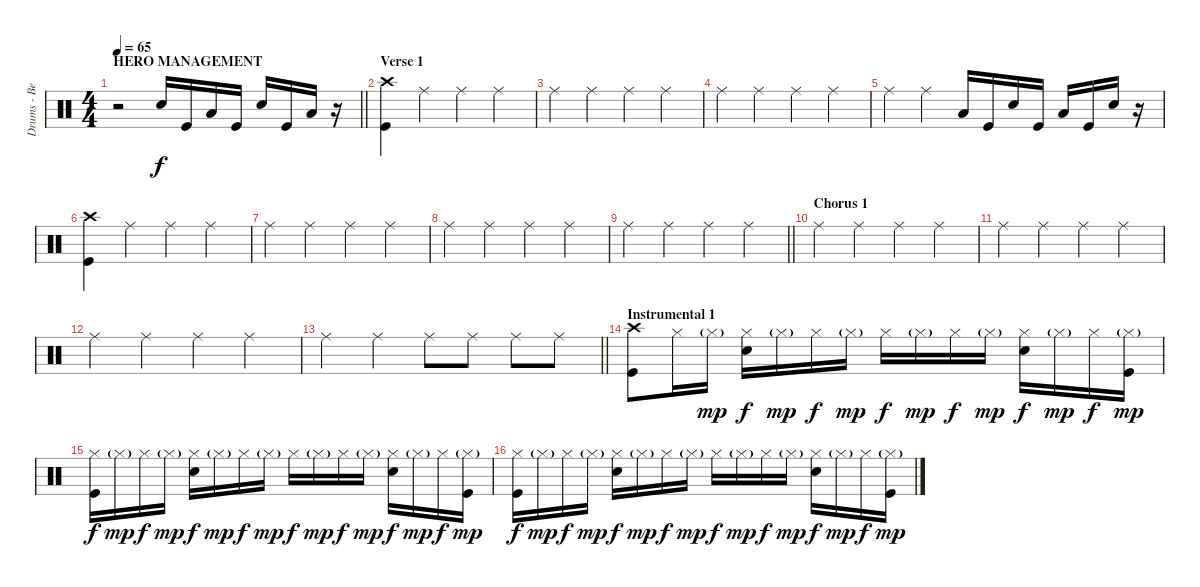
\track ("Drums - Ben Johnston" "Drums - Be") {instrument percussion}
\staff {score}
\articulation defaults
\ts (4 4)
\section ("" "HERO MANAGEMENT")
\tempo 65
\clef neutral
\barLineRight lightlight
\ks c
r.2{dy f volume 13} "Snare (hit) 2".16 "Kick (hit)".16 "Low Tom (hit)".16 "Kick (hit)".16 "Snare (hit) 2".16 "Kick (hit)".16 "Low Tom (hit)".16 r.16 |
\section ("" "Verse 1")
("Crash high (hit)" "Kick (hit)").4 "Ride (middle)".4 "Ride (middle)".4 "Ride (middle)".4 |
"Ride (middle)".4 "Ride (middle)".4 "Ride (middle)".4 "Ride (middle)".4 |
"Ride (middle)".4 "Ride (middle)".4 "Ride (middle)".4 "Ride (middle)".4 |
"Ride (middle)".4 "Ride (middle)".4 "Low Tom (hit)".16 "Kick (hit)".16 "Snare (hit) 2".16 "Kick (hit)".16 "Low Tom (hit)".16 "Kick (hit)".16 "Snare (hit) 2".16 r.16 |
("Crash high (hit)" "Kick (hit)").4 "Ride (middle)".4 "Ride (middle)".4 "Ride (middle)".4 |
"Ride (middle)".4 "Ride (middle)".4 "Ride (middle)".4 "Ride (middle)".4 |
"Ride (middle)".4 "Ride (middle)".4 "Ride (middle)".4 "Ride (middle)".4 |
\barLineRight lightlight "Ride (middle)".4 "Ride (middle)".4 "Ride (middle)".4 "Ride (middle)".4
|
\section ("" "Chorus 1")
"Ride (middle)".4 "Ride (middle)".4 "Ride (middle)".4 "Ride (middle)".4 |
"Ride (middle)".4 "Ride (middle)".4 "Ride (middle)".4 "Ride (middle)".4 |
"Ride (middle)".4 "Ride (middle)".4 "Ride (middle)".4 "Ride (middle)".4 |
\barLineRight lightlight "Ride (middle)".4 "Ride (middle)".4 "Ride (middle)".8 "Ride (middle)".8 "Ride (middle)".8 "Ride (middle)".8
|
\section ("" "Instrumental 1")
("Crash high (hit)" "Kick (hit)").8 "Hi-Hat (closed)".16 "Hi-Hat (closed)"{g}.16{dy mp} ("Hi-Hat (closed)" "Snare (hit) 2").16{dy f} "Hi-Hat (closed)"{g}.16{dy mp} "Hi-Hat (closed)".16{dy f} "Hi-Hat (closed)"{g}.16{dy mp} "Hi-Hat (closed)".16{dy f} "Hi-Hat (closed)"{g}.16{dy mp} "Hi-Hat (closed)".16{dy f} "Hi-Hat (closed)"{g}.16{dy mp} ("Hi-Hat (closed)" "Snare (hit) 2").16{dy f} "Hi-Hat (closed)"{g}.16{dy mp} "Hi-Hat (closed)".16{dy f} ("Hi-Hat (closed)"{g} "Kick (hit)").16{dy mp} |
("Hi-Hat (closed)" "Kick (hit)").16{dy f} "Hi-Hat (closed)"{g}.16{dy mp} "Hi-Hat (closed)".16{dy f} "Hi-Hat (closed)"{g}.16{dy mp} ("Hi-Hat (closed)" "Snare (hit) 2").16{dy f} "Hi-Hat (closed)"{g}.16{dy mp} "Hi-Hat (closed)".16{dy f} "Hi-Hat (closed)"{g}.16{dy mp} "Hi-Hat (closed)".16{dy f} "Hi-Hat (closed)"{g}.16{dy mp} "Hi-Hat (closed)".16{dy f} "Hi-Hat (closed)"{g}.16{dy mp} ("Hi-Hat (closed)" "Snare (hit) 2").16{dy f} "Hi-Hat (closed)"{g}.16{dy mp} "Hi-Hat (closed)".16{dy f} ("Hi-Hat (closed)"{g} "Kick (hit)").16{dy mp} |
("Hi-Hat (closed)" "Kick (hit)").16{dy f} "Hi-Hat (closed)"{g}.16{dy mp} "Hi-Hat (closed)".16{dy f} "Hi-Hat (closed)"{g}.16{dy mp} ("Hi-Hat (closed)" "Snare (hit) 2").16{dy f} "Hi-Hat (closed)"{g}.16{dy mp} "Hi-Hat (closed)".16{dy f} "Hi-Hat (closed)"{g}.16{dy mp} "Hi-Hat (closed)".16{dy f} "Hi-Hat (closed)"{g}.16{dy mp} "Hi-Hat (closed)".16{dy f} "Hi-Hat (closed)"{g}.16{dy mp} ("Hi-Hat (closed)" "Snare (hit) 2").16{dy f} "Hi-Hat (closed)"{g}.16{dy mp} "Hi-Hat (closed)".16{dy f} ("Hi-Hat (closed)"{g} "Kick (hit)").16{dy mp}
